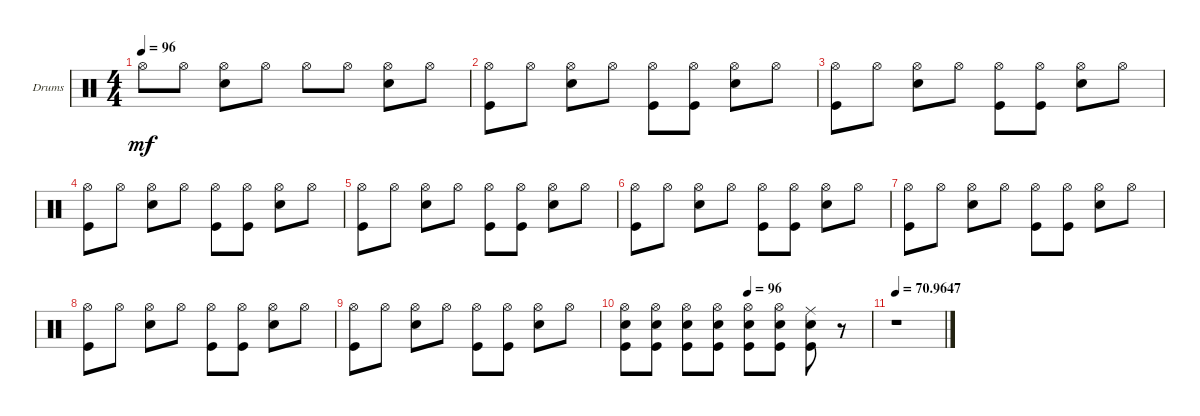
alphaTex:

\defaultSystemsLayout 4
\bracketExtendMode groupsimilarinstruments
\firstSystemTrackNameOrientation horizontal
\otherSystemsTrackNameOrientation horizontal
\track ("Drumkit" "Drums") {instrument percussion}
\staff {score}
\articulation defaults
\ts (4 4)
\tempo 96
\clef neutral
\ks c "Hi-Hat (open)".8{dy mf} "Hi-Hat (open)".8
("Hi-Hat (open)" "Snare (hit) 2").8 "Hi-Hat (open)".8 "Hi-Hat (open)".8 "Hi-Hat (open)".8 ("Hi-Hat (open)" "Snare (hit) 2").8 "Hi-Hat (open)".8 |
("Hi-Hat (open)" "Kick (hit)").8 "Hi-Hat (open)".8 ("Hi-Hat (open)" "Snare (hit) 2").8 "Hi-Hat (open)".8 ("Hi-Hat (open)" "Kick (hit)").8 ("Hi-Hat (open)" "Kick (hit)").8 ("Hi-Hat (open)" "Snare (hit) 2").8 "Hi-Hat (open)".8 |
("Hi-Hat (open)" "Kick (hit)").8 "Hi-Hat (open)".8 ("Hi-Hat (open)" "Snare (hit) 2").8 "Hi-Hat (open)".8 ("Hi-Hat (open)" "Kick (hit)").8 ("Hi-Hat (open)" "Kick (hit)").8 ("Hi-Hat (open)" "Snare (hit) 2").8 "Hi-Hat (open)".8 |
("Hi-Hat (open)" "Kick (hit)").8 "Hi-Hat (open)".8 ("Hi-Hat (open)" "Snare (hit) 2").8 "Hi-Hat (open)".8 ("Hi-Hat (open)" "Kick (hit)").8 ("Hi-Hat (open)" "Kick (hit)").8 ("Hi-Hat (open)" "Snare (hit) 2").8 "Hi-Hat (open)".8 |
("Hi-Hat (open)" "Kick (hit)").8 "Hi-Hat (open)".8 ("Hi-Hat (open)" "Snare (hit) 2").8 "Hi-Hat (open)".8 ("Hi-Hat (open)" "Kick (hit)").8 ("Hi-Hat (open)" "Kick (hit)").8 ("Hi-Hat (open)" "Snare (hit) 2").8 "Hi-Hat (open)".8 |
("Hi-Hat (open)" "Kick (hit)").8 "Hi-Hat (open)".8 ("Hi-Hat (open)" "Snare (hit) 2").8 "Hi-Hat (open)".8 ("Hi-Hat (open)" "Kick (hit)").8 ("Hi-Hat (open)" "Kick (hit)").8 ("Hi-Hat (open)" "Snare (hit) 2").8 "Hi-Hat (open)".8 |
("Hi-Hat (open)" "Kick (hit)").8 "Hi-Hat (open)".8 ("Hi-Hat (open)" "Snare (hit) 2").8 "Hi-Hat (open)".8 ("Hi-Hat (open)" "Kick (hit)").8 ("Hi-Hat (open)" "Kick (hit)").8 ("Hi-Hat (open)" "Snare (hit) 2").8 "Hi-Hat (open)".8 |
("Hi-Hat (open)" "Kick (hit)").8 "Hi-Hat (open)".8 ("Hi-Hat (open)" "Snare (hit) 2").8 "Hi-Hat (open)".8 ("Hi-Hat (open)" "Kick (hit)").8 ("Hi-Hat (open)" "Kick (hit)").8 ("Hi-Hat (open)" "Snare (hit) 2").8 "Hi-Hat (open)".8 |
("Hi-Hat (open)" "Kick (hit)").8 "Hi-Hat (open)".8 ("Hi-Hat (open)" "Snare (hit) 2").8 "Hi-Hat (open)".8 ("Hi-Hat (open)" "Kick (hit)").8 ("Hi-Hat (open)" "Kick (hit)").8 ("Hi-Hat (open)" "Snare (hit) 2").8 "Hi-Hat (open)".8 |
\tempo (96 0.5)
("Snare (hit) 2" "Kick (hit)" "Hi-Hat (open)").8 ("Hi-Hat (open)" "Snare (hit) 2" "Kick (hit)").8 ("Hi-Hat (open)" "Snare (hit) 2" "Kick (hit)").8 ("Hi-Hat (open)" "Snare (hit) 2" "Kick (hit)").8 ("Hi-Hat (open)" "Snare (hit) 2" "Kick (hit)").8 ("Hi-Hat (open)" "Snare (hit) 2" "Kick (hit)").8 ("Ride (middle)" "Snare (hit) 2" "Kick (hit)").8 r.8 |
\tempo
70.9647 r.1
